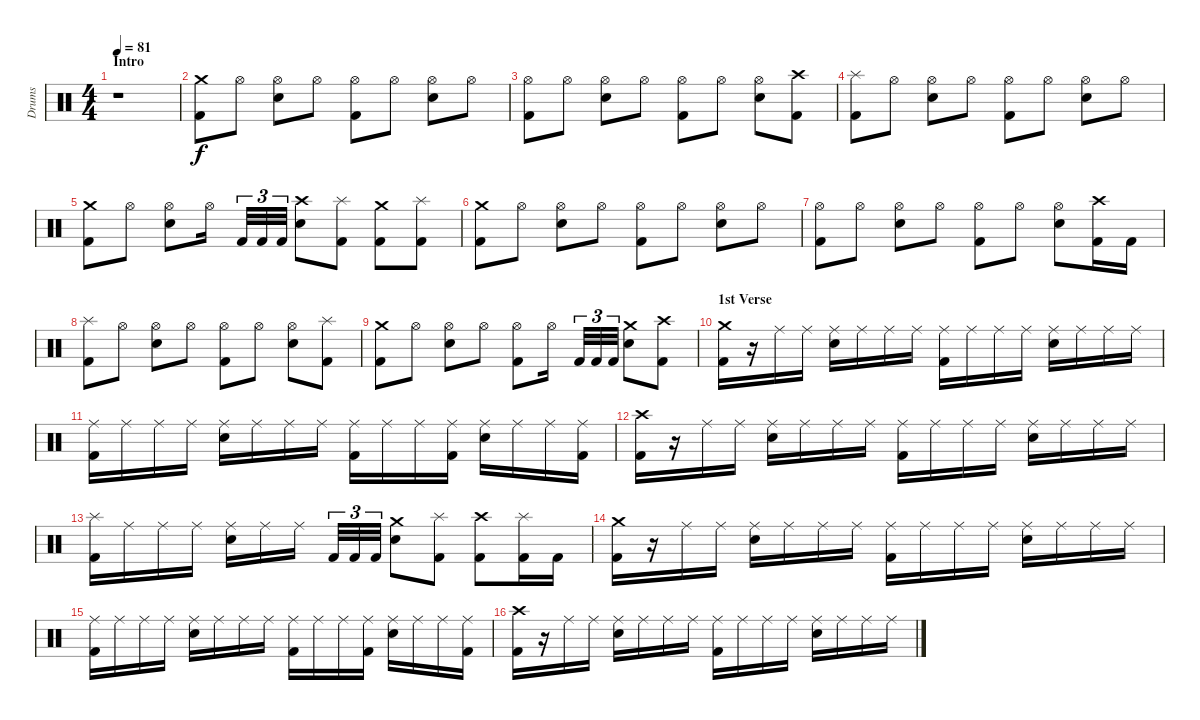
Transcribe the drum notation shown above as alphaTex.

\track ("Drums" "Drums") {instrument percussion}
\staff {score}
\articulation defaults
\ts (4 4)
\section ("" "Intro")
\tempo 81
\clef neutral
\ks c
r.1{dy f} |
("Crash medium (hit)" "Kick (hit) 2").8 "Hi-Hat (open)".8 ("Hi-Hat (open)" "Electric Snare (hit)").8 "Hi-Hat (open)".8 ("Hi-Hat (open)" "Kick (hit) 2").8 "Hi-Hat (open)".8 ("Hi-Hat (open)" "Electric Snare (hit)").8 "Hi-Hat (open)".8 |
("Hi-Hat (open)" "Kick (hit) 2").8 "Hi-Hat (open)".8 ("Hi-Hat (open)" "Electric Snare (hit)").8 "Hi-Hat (open)".8 ("Hi-Hat (open)" "Kick (hit) 2").8 "Hi-Hat (open)".8 ("Hi-Hat (open)" "Electric Snare (hit)").8 ("Crash high (hit)" "Kick (hit) 2").8 |
("Splash (hit)" "Kick (hit) 2").8 "Hi-Hat (open)".8 ("Hi-Hat (open)" "Electric Snare (hit)").8 "Hi-Hat (open)".8 ("Hi-Hat (open)" "Kick (hit) 2").8 "Hi-Hat (open)".8 ("Hi-Hat (open)" "Electric Snare (hit)").8 "Hi-Hat (open)".8 |
("Crash medium (hit)" "Kick (hit) 2").8 "Hi-Hat (open)".8 ("Hi-Hat (open)" "Electric Snare (hit)").8 "Hi-Hat (open)".16 "Kick (hit) 2".32{tu (3 2)} "Kick (hit) 2".32{tu (3 2)} "Kick (hit) 2".32{tu (3 2)} ("Crash high (hit)" "Electric Snare (hit)").8 ("Splash (hit)" "Kick (hit) 2").8 ("Crash medium (hit)" "Kick (hit) 2").8 ("Splash (hit)" "Kick (hit) 2").8 |
("Crash medium (hit)" "Kick (hit) 2").8 "Hi-Hat (open)".8 ("Hi-Hat (open)" "Electric Snare (hit)").8 "Hi-Hat (open)".8 ("Hi-Hat (open)" "Kick (hit) 2").8 "Hi-Hat (open)".8 ("Hi-Hat (open)" "Electric Snare (hit)").8 "Hi-Hat (open)".8 |
("Hi-Hat (open)" "Kick (hit) 2").8 "Hi-Hat (open)".8 ("Hi-Hat (open)" "Electric Snare (hit)").8 "Hi-Hat (open)".8 ("Hi-Hat (open)" "Kick (hit) 2").8 "Hi-Hat (open)".8 ("Hi-Hat (open)" "Electric Snare (hit)").8 ("Crash high (hit)" "Kick (hit) 2").16 "Kick (hit) 2".16 |
("Splash (hit)" "Kick (hit) 2").8 "Hi-Hat (open)".8 ("Hi-Hat (open)" "Electric Snare (hit)").8 "Hi-Hat (open)".8 ("Hi-Hat (open)" "Kick (hit) 2").8 "Hi-Hat (open)".8 ("Hi-Hat (open)" "Electric Snare (hit)").8 ("Splash (hit)" "Kick (hit) 2").8 |
("Crash medium (hit)" "Kick (hit) 2").8 "Hi-Hat (open)".8 ("Hi-Hat (open)" "Electric Snare (hit)").8 "Hi-Hat (open)".8 ("Hi-Hat (open)" "Kick (hit) 2").8 "Hi-Hat (open)".16 "Kick (hit) 2".32{tu (3 2)} "Kick (hit) 2".32{tu (3 2)} "Kick (hit) 2".32{tu (3 2)} ("Crash medium (hit)" "Electric Snare (hit)").8 ("Crash high (hit)" "Kick (hit) 2").8 |
\section ("" "1st Verse")
("Crash medium (hit)" "Kick (hit) 2").16 r.16 "Ride (middle)".16 "Ride (middle)".16 ("Ride (middle)" "Electric Snare (hit)").16 "Ride (middle)".16 "Ride (middle)".16 "Ride (middle)".16 ("Ride (middle)" "Kick (hit) 2").16 "Ride (middle)".16 "Ride (middle)".16 "Ride (middle)".16 ("Ride (middle)" "Electric Snare (hit)").16 "Ride (middle)".16 "Ride (middle)".16 "Ride (middle)".16 |
("Ride (middle)" "Kick (hit) 2").16 "Ride (middle)".16 "Ride (middle)".16 "Ride (middle)".16 ("Ride (middle)" "Electric Snare (hit)").16 "Ride (middle)".16 "Ride (middle)".16 "Ride (middle)".16 ("Ride (middle)" "Kick (hit) 2").16 "Ride (middle)".16 "Ride (middle)".16 ("Ride (middle)" "Kick (hit) 2").16 ("Ride (middle)" "Electric Snare (hit)").16 "Ride (middle)".16 "Ride (middle)".16 ("Ride (middle)" "Kick (hit) 2").16 |
("Crash high (hit)" "Kick (hit) 2").16 r.16 "Ride (middle)".16 "Ride (middle)".16 ("Ride (middle)" "Electric Snare (hit)").16 "Ride (middle)".16 "Ride (middle)".16 "Ride (middle)".16 ("Ride (middle)" "Kick (hit) 2").16 "Ride (middle)".16 "Ride (middle)".16 "Ride (middle)".16 ("Ride (middle)" "Electric Snare (hit)").16 "Ride (middle)".16 "Ride (middle)".16 "Ride (middle)".16 |
("Splash (hit)" "Kick (hit) 2").16 "Ride (middle)".16 "Ride (middle)".16 "Ride (middle)".16 ("Ride (middle)" "Electric Snare (hit)").16 "Ride (middle)".16 "Ride (middle)".16 "Kick (hit) 2".32{tu (3 2)} "Kick (hit) 2".32{tu (3 2)} "Kick (hit) 2".32{tu (3 2)} ("Crash medium (hit)" "Electric Snare (hit)").8 ("Splash (hit)" "Kick (hit) 2").8 ("Crash high (hit)" "Kick (hit) 2").8 ("Splash (hit)" "Kick (hit) 2").16 "Kick (hit) 2".16 |
("Crash medium (hit)" "Kick (hit) 2").16 r.16 "Ride (middle)".16 "Ride (middle)".16 ("Ride (middle)" "Electric Snare (hit)").16 "Ride (middle)".16 "Ride (middle)".16 "Ride (middle)".16 ("Ride (middle)" "Kick (hit) 2").16 "Ride (middle)".16 "Ride (middle)".16 "Ride (middle)".16 ("Ride (middle)" "Electric Snare (hit)").16 "Ride (middle)".16 "Ride (middle)".16 "Ride (middle)".16 |
("Ride (middle)" "Kick (hit) 2").16 "Ride (middle)".16 "Ride (middle)".16 "Ride (middle)".16 ("Ride (middle)" "Electric Snare (hit)").16 "Ride (middle)".16 "Ride (middle)".16 "Ride (middle)".16 ("Ride (middle)" "Kick (hit) 2").16 "Ride (middle)".16 "Ride (middle)".16 ("Ride (middle)" "Kick (hit) 2").16 ("Ride (middle)" "Electric Snare (hit)").16 "Ride (middle)".16 "Ride (middle)".16 ("Ride (middle)" "Kick (hit) 2").16 |
("Crash high (hit)" "Kick (hit) 2").16 r.16 "Ride (middle)".16 "Ride (middle)".16 ("Ride (middle)" "Electric Snare (hit)").16 "Ride (middle)".16 "Ride (middle)".16 "Ride (middle)".16 ("Ride (middle)" "Kick (hit) 2").16 "Ride (middle)".16 "Ride (middle)".16 "Ride (middle)".16 ("Ride (middle)" "Electric Snare (hit)").16 "Ride (middle)".16 "Ride (middle)".16 "Ride (middle)".16
